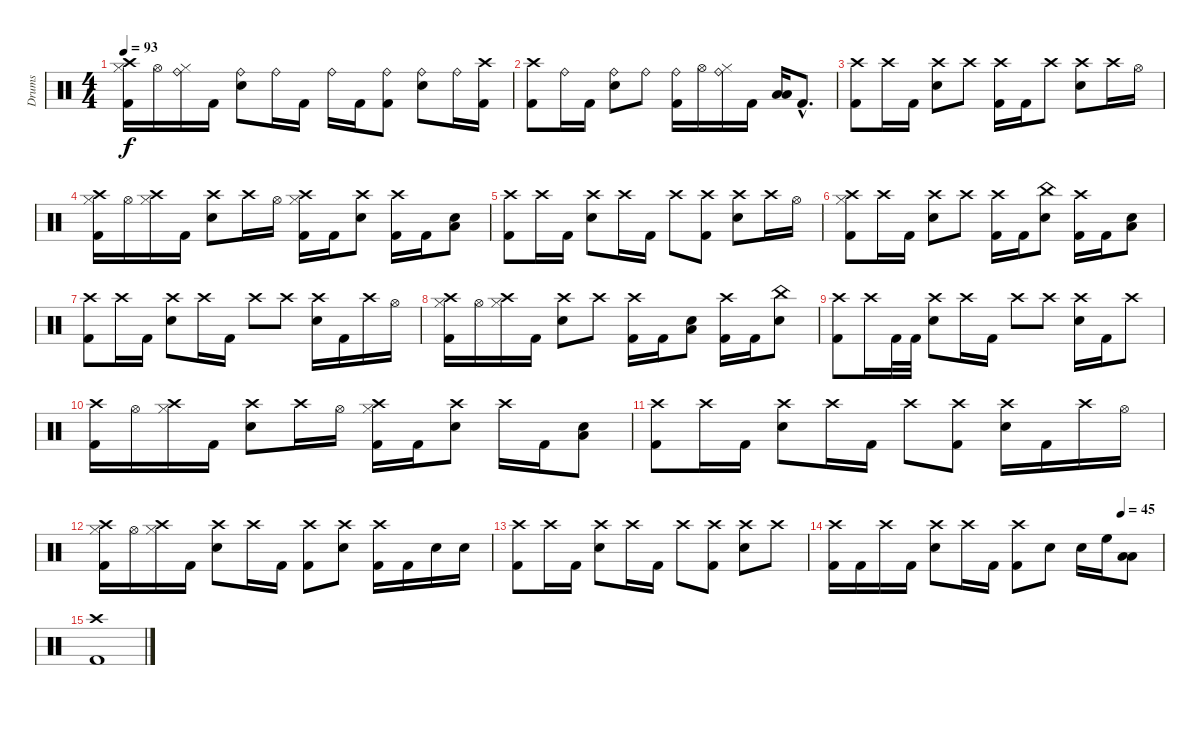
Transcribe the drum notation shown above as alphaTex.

\track ("Drums" "Drums") {instrument percussion}
\staff {score}
\articulation defaults
\ts (4 4)
\tempo 93
\clef neutral
\ks c
("Crash high (hit)" "Hi-Hat (closed)" "Kick (hit) 2").16{dy f} "Hi-Hat (open)".16 ("Ride (bell)" "Hi-Hat (closed)").16 "Kick (hit) 2".16 ("Ride (bell)" "Electric Snare (hit)").8 "Ride (bell)".16 "Kick (hit) 2".16 "Ride (bell)".16 "Kick (hit) 2".16 ("Ride (bell)" "Kick (hit) 2").8 ("Ride (bell)" "Electric Snare (hit)").8 "Ride (bell)".16 ("Crash high (hit)" "Kick (hit) 2").16 |
("Crash high (hit)" "Kick (hit) 2").8 "Ride (bell)".16 "Kick (hit) 2".16 ("Ride (bell)" "Electric Snare (hit)").8 "Ride (bell)".8 ("Ride (bell)" "Kick (hit) 2").16 "Hi-Hat (open)".16 ("Ride (bell)" "Hi-Hat (closed)").16 "Kick (hit) 2".16 ("Low Tom (hit)" "Low Floor Tom (hit)").16 "Kick (hit) 2"{hac}.8{d} |
("Crash high (hit)" "Kick (hit) 2").8 "Crash high (hit)".16 "Kick (hit) 2".16 ("Crash high (hit)" "Electric Snare (hit)").8 "Crash high (hit)".8 ("Crash high (hit)" "Kick (hit) 2").16 "Kick (hit) 2".16 "Crash high (hit)".8 ("Crash high (hit)" "Electric Snare (hit)").8 "Crash high (hit)".16 "Hi-Hat (open)".16 |
("Crash high (hit)" "Hi-Hat (closed)" "Kick (hit) 2").16 "Hi-Hat (open)".16 ("Crash high (hit)" "Hi-Hat (closed)").16 "Kick (hit) 2".16 ("Crash high (hit)" "Electric Snare (hit)").8 "Crash high (hit)".16 "Hi-Hat (open)".16 ("Crash high (hit)" "Hi-Hat (closed)" "Kick (hit) 2").16 "Kick (hit) 2".16 ("Crash high (hit)" "Electric Snare (hit)").8 ("Crash high (hit)" "Kick (hit) 2").16 "Kick (hit) 2".16 ("Electric Snare (hit)" "Low Floor Tom (hit)").8 |
("Crash high (hit)" "Kick (hit) 2").8 "Crash high (hit)".16 "Kick (hit) 2".16 ("Crash high (hit)" "Electric Snare (hit)").8 "Crash high (hit)".16 "Kick (hit) 2".16 "Crash high (hit)".8 ("Crash high (hit)" "Kick (hit) 2").8 ("Crash high (hit)" "Electric Snare (hit)").8 "Crash high (hit)".16 "Hi-Hat (open)".16 |
("Crash high (hit)" "Hi-Hat (closed)" "Kick (hit) 2").8 "Crash high (hit)".16 "Kick (hit) 2".16 ("Crash high (hit)" "Electric Snare (hit)").8 "Crash high (hit)".8 ("Crash high (hit)" "Kick (hit) 2").16 "Kick (hit) 2".16 ("China (hit)" "Electric Snare (hit)").8 ("Crash high (hit)" "Kick (hit) 2").16 "Kick (hit) 2".16 ("Electric Snare (hit)" "Low Floor Tom (hit)").8 |
("Crash high (hit)" "Kick (hit) 2").8 "Crash high (hit)".16 "Kick (hit) 2".16 ("Crash high (hit)" "Electric Snare (hit)").8 "Crash high (hit)".16 "Kick (hit) 2".16 "Crash high (hit)".8 "Crash high (hit)".8 ("Crash high (hit)" "Electric Snare (hit)").16 "Kick (hit) 2".16 "Crash high (hit)".16 "Hi-Hat (open)".16 |
("Crash high (hit)" "Hi-Hat (closed)" "Kick (hit) 2").16 "Hi-Hat (open)".16 ("Crash high (hit)" "Hi-Hat (closed)").16 "Kick (hit) 2".16 ("Crash high (hit)" "Electric Snare (hit)").8 "Crash high (hit)".8 ("Crash high (hit)" "Kick (hit) 2").16 "Kick (hit) 2".16 ("Electric Snare (hit)" "Low Floor Tom (hit)").8 ("Crash high (hit)" "Kick (hit) 2").16 "Kick (hit) 2".16 ("China (hit)" "Electric Snare (hit)").8 |
("Crash high (hit)" "Kick (hit) 2").8 "Crash high (hit)".16 "Kick (hit) 2".32 "Kick (hit) 2".32 ("Crash high (hit)" "Electric Snare (hit)").8 "Crash high (hit)".16 "Kick (hit) 2".16 "Crash high (hit)".8 "Crash high (hit)".8 ("Crash high (hit)" "Electric Snare (hit)").16 "Kick (hit) 2".16 "Crash high (hit)".8 |
("Crash high (hit)" "Kick (hit) 2").16 "Hi-Hat (open)".16 ("Crash high (hit)" "Hi-Hat (closed)").16 "Kick (hit) 2".16 ("Crash high (hit)" "Electric Snare (hit)").8 "Crash high (hit)".16 "Hi-Hat (open)".16 ("Crash high (hit)" "Hi-Hat (closed)" "Kick (hit) 2").16 "Kick (hit) 2".16 ("Crash high (hit)" "Electric Snare (hit)").8 "Crash high (hit)".16 "Kick (hit) 2".16 ("Electric Snare (hit)" "Low Floor Tom (hit)").8 |
("Crash high (hit)" "Kick (hit) 2").8 "Crash high (hit)".16 "Kick (hit) 2".16 ("Crash high (hit)" "Electric Snare (hit)").8 "Crash high (hit)".16 "Kick (hit) 2".16 "Crash high (hit)".8 ("Crash high (hit)" "Kick (hit) 2").8 ("Crash high (hit)" "Electric Snare (hit)").16 "Kick (hit) 2".16 "Crash high (hit)".16 "Hi-Hat (open)".16 |
("Crash high (hit)" "Hi-Hat (closed)" "Kick (hit) 2").16 "Hi-Hat (open)".16 ("Crash high (hit)" "Hi-Hat (closed)").16 "Kick (hit) 2".16 ("Crash high (hit)" "Electric Snare (hit)").8 "Crash high (hit)".16 "Kick (hit) 2".16 ("Crash high (hit)" "Kick (hit) 2").8 ("Crash high (hit)" "Electric Snare (hit)").8 ("Crash high (hit)" "Kick (hit) 2").16 "Kick (hit) 2".16 "Electric Snare (hit)".16 "Electric Snare (hit)".16 |
("Crash high (hit)" "Kick (hit) 2").8 "Crash high (hit)".16 "Kick (hit) 2".16 ("Crash high (hit)" "Electric Snare (hit)").8 "Crash high (hit)".16 "Kick (hit) 2".16 "Crash high (hit)".8 ("Crash high (hit)" "Kick (hit) 2").8 ("Crash high (hit)" "Electric Snare (hit)").8 "Crash high (hit)".8 |
\tempo (45 0.875)
("Crash high (hit)" "Kick (hit) 2").16 "Kick (hit) 2".16 "Crash high (hit)".16 "Kick (hit) 2".16 ("Crash high (hit)" "Electric Snare (hit)").8 "Crash high (hit)".16 "Kick (hit) 2".16 ("Crash high (hit)" "Kick (hit) 2").8 "Electric Snare (hit)".8 "Electric Snare (hit)".16 "High Floor Tom (hit)".16 ("Low Tom (hit)" "Low Floor Tom (hit)").8 |
("Crash high (hit)" "Kick (hit) 2").1
